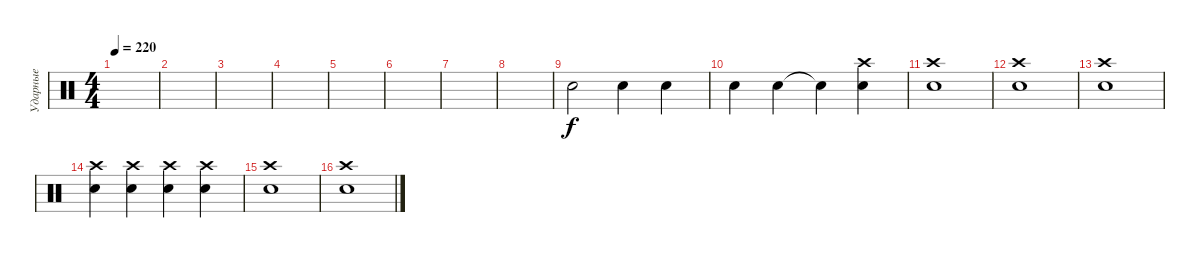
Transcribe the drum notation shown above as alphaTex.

\track ("Ударные" "Ударные") {instrument percussion}
\staff {score}
\articulation defaults
\ts (4 4)
\tempo 220
\clef neutral
\ks c
|
|
|
|
|
|
|
|
"Snare (hit)".2 "Electric Snare (hit)".4 "Electric Snare (hit)".4 |
"Electric Snare (hit)".4 "Electric Snare (hit)".4 "Snare (hit)"{t}.4 ("Crash high (hit)" "Electric Snare (hit)").4 |
("Electric Snare (hit)" "Crash high (hit)").1 |
("Electric Snare (hit)" "Crash high (hit)").1 |
("Electric Snare (hit)" "Crash high (hit)").1 |
("Electric Snare (hit)" "Crash high (hit)").4 ("Electric Snare (hit)" "Crash high (hit)").4 ("Electric Snare (hit)" "Crash high (hit)").4 ("Electric Snare (hit)" "Crash high (hit)").4 |
("Snare (hit) 2" "Crash high (hit)").1 |
("Snare (hit) 2" "Crash high (hit)").1
